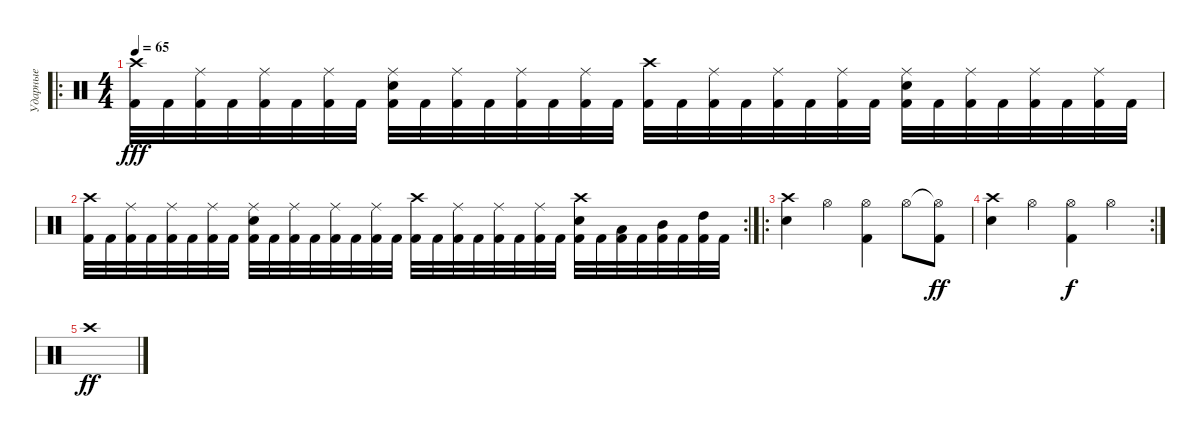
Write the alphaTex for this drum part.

\track ("Ударные" "Ударные") {instrument percussion}
\staff {score}
\articulation defaults
\ro
\ts (4 4)
\tempo 65
\clef neutral
\ks c
("Crash high (hit)" "Kick (hit) 2").32{dy fff} "Kick (hit) 2".32 ("Ride (middle)" "Kick (hit) 2").32 "Kick (hit) 2".32 ("Ride (middle)" "Kick (hit) 2").32 "Kick (hit) 2".32 ("Ride (middle)" "Kick (hit) 2").32 "Kick (hit) 2".32 ("Ride (middle)" "Snare (hit) 2" "Kick (hit) 2").32 "Kick (hit) 2".32 ("Ride (middle)" "Kick (hit) 2").32 "Kick (hit) 2".32 ("Ride (middle)" "Kick (hit) 2").32 "Kick (hit) 2".32 ("Ride (middle)" "Kick (hit) 2").32 "Kick (hit) 2".32 ("Crash high (hit)" "Kick (hit) 2").32 "Kick (hit) 2".32 ("Ride (middle)" "Kick (hit) 2").32 "Kick (hit) 2".32 ("Ride (middle)" "Kick (hit) 2").32 "Kick (hit) 2".32 ("Ride (middle)" "Kick (hit) 2").32 "Kick (hit) 2".32 ("Ride (middle)" "Snare (hit) 2" "Kick (hit) 2").32 "Kick (hit) 2".32 ("Ride (middle)" "Kick (hit) 2").32 "Kick (hit) 2".32 ("Ride (middle)" "Kick (hit) 2").32 "Kick (hit) 2".32 ("Ride (middle)" "Kick (hit) 2").32 "Kick (hit) 2".32 |
\rc 2
("Crash high (hit)" "Kick (hit) 2").32 "Kick (hit) 2".32 ("Ride (middle)" "Kick (hit) 2").32 "Kick (hit) 2".32 ("Ride (middle)" "Kick (hit) 2").32 "Kick (hit) 2".32 ("Ride (middle)" "Kick (hit) 2").32 "Kick (hit) 2".32 ("Ride (middle)" "Snare (hit) 2" "Kick (hit) 2").32 "Kick (hit) 2".32 ("Ride (middle)" "Kick (hit) 2").32 "Kick (hit) 2".32 ("Ride (middle)" "Kick (hit) 2").32 "Kick (hit) 2".32 ("Ride (middle)" "Kick (hit) 2").32 "Kick (hit) 2".32 ("Crash high (hit)" "Kick (hit) 2").32 "Kick (hit) 2".32 ("Ride (middle)" "Kick (hit) 2").32 "Kick (hit) 2".32 ("Ride (middle)" "Kick (hit) 2").32 "Kick (hit) 2".32 ("Ride (middle)" "Kick (hit) 2").32 "Kick (hit) 2".32 ("Crash high (hit)" "Snare (hit) 2" "Kick (hit) 2").32 "Kick (hit) 2".32 ("Low Tom (hit)" "Kick (hit) 2").32 "Kick (hit) 2".32 ("Mid Tom (hit)" "Kick (hit) 2").32 "Kick (hit) 2".32 ("High Tom (hit)" "Kick (hit) 2").32 "Kick (hit) 2".32 |
\ro
("Crash high (hit)" "Snare (hit) 2").4 "Hi-Hat (open)".4 ("Hi-Hat (open)" "Kick (hit) 2").4 "Hi-Hat (open)".8 ("Hi-Hat (open)"{t} "Kick (hit) 2").8{dy ff} |
\rc 2
("Crash high (hit)" "Snare (hit) 2").4 "Hi-Hat (open)".4 ("Hi-Hat (open)" "Kick (hit) 2").4{dy f} "Hi-Hat (open)".4 |
"Crash high (hit)".1{dy ff}
